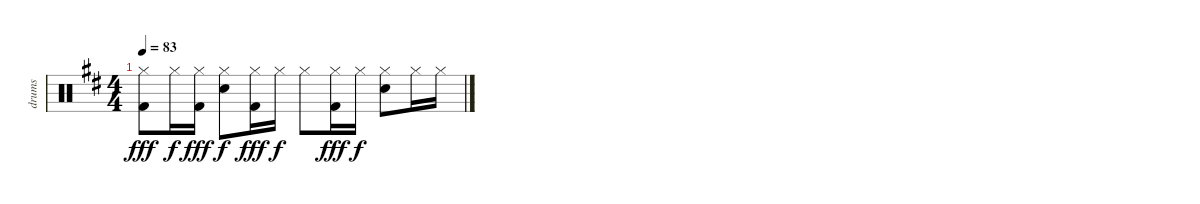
\track ("drums" "drums") {instrument percussion}
\staff {score}
\articulation defaults
\ts (4 4)
\tempo 83
\clef neutral
\ks d
("Hi-Hat (closed)" "Kick (hit) 2").8{dy fff} "Hi-Hat (closed)".16{dy f} ("Hi-Hat (closed)" "Kick (hit) 2").16{dy fff} ("Hi-Hat (closed)" "Electric Snare (hit)").8{dy f} ("Hi-Hat (closed)" "Kick (hit) 2").16{dy fff} "Hi-Hat (closed)".16{dy f} "Hi-Hat (closed)".8 ("Hi-Hat (closed)" "Kick (hit) 2").16{dy fff} "Hi-Hat (closed)".16{dy f} ("Hi-Hat (closed)" "Electric Snare (hit)").8 "Hi-Hat (closed)".16 "Hi-Hat (closed)".16
